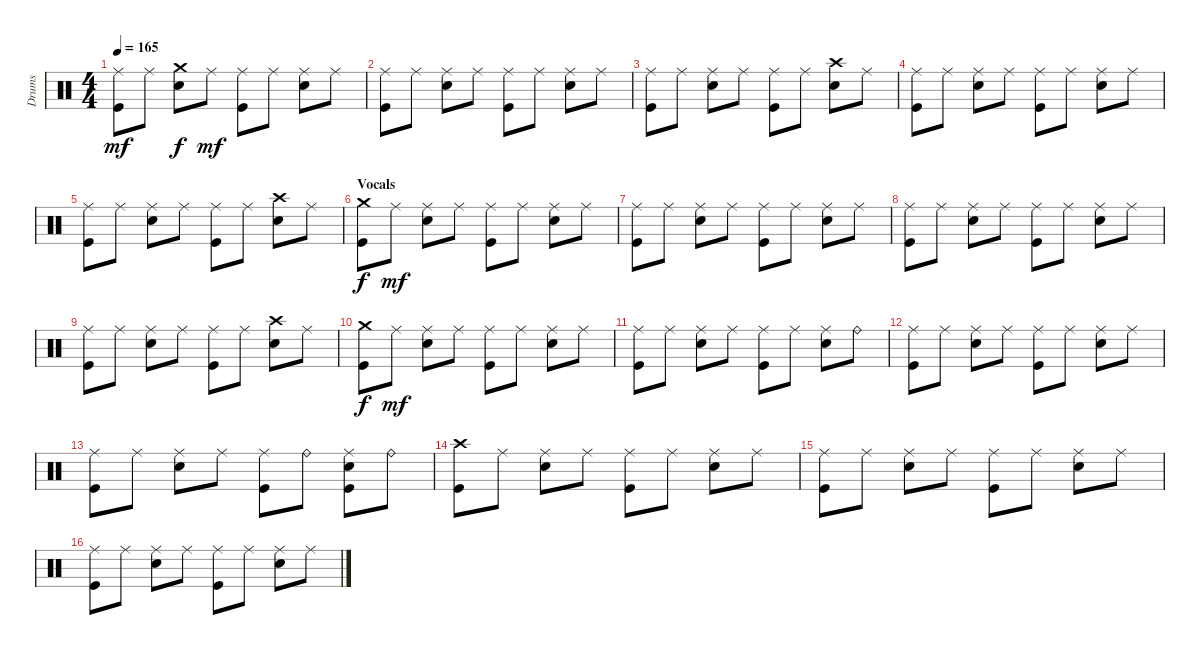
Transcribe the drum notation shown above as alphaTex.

\track ("Drums" "Drums") {instrument percussion}
\staff {score}
\articulation defaults
\ts (4 4)
\tempo 165
\clef neutral
\ks c
("Ride (middle)" "Kick (hit)").8{dy mf} "Ride (middle)".8 ("Crash medium (hit)" "Electric Snare (hit)").8{dy f} "Ride (middle)".8{dy mf} ("Ride (middle)" "Kick (hit)").8 "Ride (middle)".8 ("Ride (middle)" "Electric Snare (hit)").8 "Ride (middle)".8 |
("Ride (middle)" "Kick (hit)").8 "Ride (middle)".8 ("Ride (middle)" "Electric Snare (hit)").8 "Ride (middle)".8 ("Ride (middle)" "Kick (hit)").8 "Ride (middle)".8 ("Ride (middle)" "Electric Snare (hit)").8 "Ride (middle)".8 |
("Ride (middle)" "Kick (hit)").8 "Ride (middle)".8 ("Ride (middle)" "Electric Snare (hit)").8 "Ride (middle)".8 ("Ride (middle)" "Kick (hit)").8 "Ride (middle)".8 ("Crash high (hit)" "Electric Snare (hit)").8 "Ride (middle)".8 |
("Ride (middle)" "Kick (hit)").8 "Ride (middle)".8 ("Ride (middle)" "Electric Snare (hit)").8 "Ride (middle)".8 ("Ride (middle)" "Kick (hit)").8 "Ride (middle)".8 ("Ride (middle)" "Electric Snare (hit)").8 "Ride (middle)".8 |
("Ride (middle)" "Kick (hit)").8 "Ride (middle)".8 ("Ride (middle)" "Electric Snare (hit)").8 "Ride (middle)".8 ("Ride (middle)" "Kick (hit)").8 "Ride (middle)".8 ("Crash high (hit)" "Electric Snare (hit)").8 "Ride (middle)".8 |
\section ("" "Vocals")
("Crash medium (hit)" "Kick (hit)").8{dy f} "Ride (middle)".8{dy mf} ("Ride (middle)" "Electric Snare (hit)").8 "Ride (middle)".8 ("Ride (middle)" "Kick (hit)").8 "Ride (middle)".8 ("Ride (middle)" "Electric Snare (hit)").8 "Ride (middle)".8 |
("Ride (middle)" "Kick (hit)").8 "Ride (middle)".8 ("Ride (middle)" "Electric Snare (hit)").8 "Ride (middle)".8 ("Ride (middle)" "Kick (hit)").8 "Ride (middle)".8 ("Ride (middle)" "Electric Snare (hit)").8 "Ride (middle)".8 |
("Ride (middle)" "Kick (hit)").8 "Ride (middle)".8 ("Ride (middle)" "Electric Snare (hit)").8 "Ride (middle)".8 ("Ride (middle)" "Kick (hit)").8 "Ride (middle)".8 ("Ride (middle)" "Electric Snare (hit)").8 "Ride (middle)".8 |
("Ride (middle)" "Kick (hit)").8 "Ride (middle)".8 ("Ride (middle)" "Electric Snare (hit)").8 "Ride (middle)".8 ("Ride (middle)" "Kick (hit)").8 "Ride (middle)".8 ("Crash high (hit)" "Electric Snare (hit)").8 "Ride (middle)".8 |
("Crash medium (hit)" "Kick (hit)").8{dy f} "Ride (middle)".8{dy mf} ("Ride (middle)" "Electric Snare (hit)").8 "Ride (middle)".8 ("Ride (middle)" "Kick (hit)").8 "Ride (middle)".8 ("Ride (middle)" "Electric Snare (hit)").8 "Ride (middle)".8 |
("Ride (middle)" "Kick (hit)").8 "Ride (middle)".8 ("Ride (middle)" "Electric Snare (hit)").8 "Ride (middle)".8 ("Ride (middle)" "Kick (hit)").8 "Ride (middle)".8 ("Ride (middle)" "Electric Snare (hit)").8 "Ride (bell)".8 |
("Ride (middle)" "Kick (hit)").8 "Ride (middle)".8 ("Ride (middle)" "Electric Snare (hit)").8 "Ride (middle)".8 ("Ride (middle)" "Kick (hit)").8 "Ride (middle)".8 ("Ride (middle)" "Electric Snare (hit)").8 "Ride (middle)".8 |
("Ride (middle)" "Kick (hit)").8 "Ride (middle)".8 ("Ride (middle)" "Electric Snare (hit)").8 "Ride (middle)".8 ("Ride (middle)" "Kick (hit)").8 "Ride (bell)".8 ("Ride (middle)" "Electric Snare (hit)" "Kick (hit)").8 "Ride (bell)".8 |
("Crash high (hit)" "Kick (hit)").8 "Ride (middle)".8 ("Ride (middle)" "Electric Snare (hit)").8 "Ride (middle)".8 ("Ride (middle)" "Kick (hit)").8 "Ride (middle)".8 ("Ride (middle)" "Electric Snare (hit)").8 "Ride (middle)".8 |
("Ride (middle)" "Kick (hit)").8 "Ride (middle)".8 ("Ride (middle)" "Electric Snare (hit)").8 "Ride (middle)".8 ("Ride (middle)" "Kick (hit)").8 "Ride (middle)".8 ("Ride (middle)" "Electric Snare (hit)").8 "Ride (middle)".8 |
("Ride (middle)" "Kick (hit)").8 "Ride (middle)".8 ("Ride (middle)" "Electric Snare (hit)").8 "Ride (middle)".8 ("Ride (middle)" "Kick (hit)").8 "Ride (middle)".8 ("Ride (middle)" "Electric Snare (hit)").8 "Ride (middle)".8
